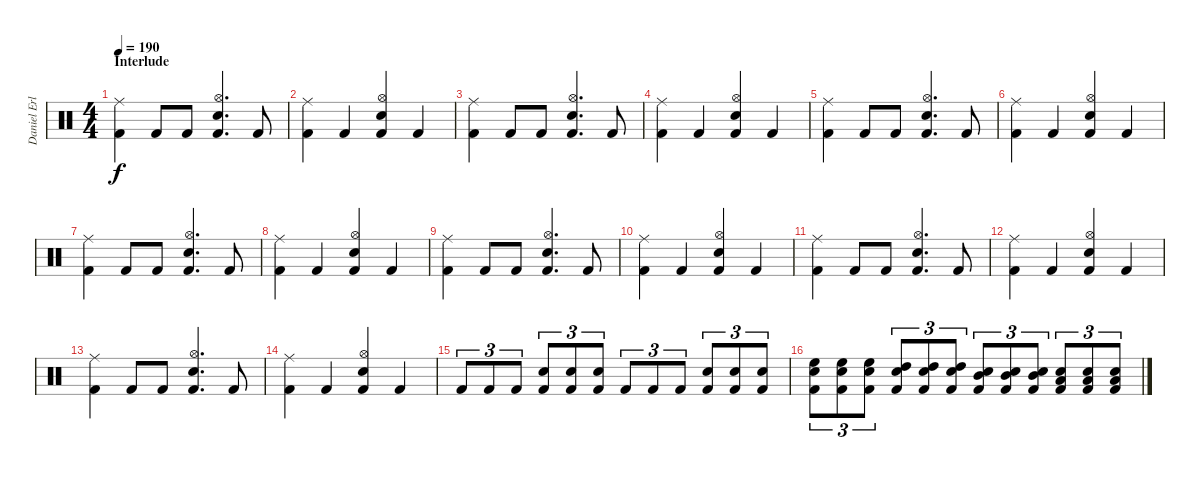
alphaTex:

\track ("Daniel Erlandsson" "Daniel Erl") {instrument percussion}
\staff {score}
\articulation defaults
\ts (4 4)
\section ("" "Interlude")
\tempo 190
\clef neutral
\ks c
("Ride (middle)" "Kick (hit) 2").4{dy f} "Kick (hit) 2".8 "Kick (hit) 2".8 ("Hi-Hat (open)" "Electric Snare (hit)" "Kick (hit) 2").4{d} "Kick (hit) 2".8 |
("Ride (middle)" "Kick (hit) 2").4 "Kick (hit) 2".4 ("Hi-Hat (open)" "Electric Snare (hit)" "Kick (hit) 2").4 "Kick (hit) 2".4 |
("Ride (middle)" "Kick (hit) 2").4 "Kick (hit) 2".8 "Kick (hit) 2".8 ("Hi-Hat (open)" "Electric Snare (hit)" "Kick (hit) 2").4{d} "Kick (hit) 2".8 |
("Ride (middle)" "Kick (hit) 2").4 "Kick (hit) 2".4 ("Hi-Hat (open)" "Electric Snare (hit)" "Kick (hit) 2").4 "Kick (hit) 2".4 |
("Ride (middle)" "Kick (hit) 2").4 "Kick (hit) 2".8 "Kick (hit) 2".8 ("Hi-Hat (open)" "Electric Snare (hit)" "Kick (hit) 2").4{d} "Kick (hit) 2".8 |
("Ride (middle)" "Kick (hit) 2").4 "Kick (hit) 2".4 ("Hi-Hat (open)" "Electric Snare (hit)" "Kick (hit) 2").4 "Kick (hit) 2".4 |
("Ride (middle)" "Kick (hit) 2").4 "Kick (hit) 2".8 "Kick (hit) 2".8 ("Hi-Hat (open)" "Electric Snare (hit)" "Kick (hit) 2").4{d} "Kick (hit) 2".8 |
("Ride (middle)" "Kick (hit) 2").4 "Kick (hit) 2".4 ("Hi-Hat (open)" "Electric Snare (hit)" "Kick (hit) 2").4 "Kick (hit) 2".4 |
("Ride (middle)" "Kick (hit) 2").4 "Kick (hit) 2".8 "Kick (hit) 2".8 ("Hi-Hat (open)" "Electric Snare (hit)" "Kick (hit) 2").4{d} "Kick (hit) 2".8 |
("Ride (middle)" "Kick (hit) 2").4 "Kick (hit) 2".4 ("Hi-Hat (open)" "Electric Snare (hit)" "Kick (hit) 2").4 "Kick (hit) 2".4 |
("Ride (middle)" "Kick (hit) 2").4 "Kick (hit) 2".8 "Kick (hit) 2".8 ("Hi-Hat (open)" "Electric Snare (hit)" "Kick (hit) 2").4{d} "Kick (hit) 2".8 |
("Ride (middle)" "Kick (hit) 2").4 "Kick (hit) 2".4 ("Hi-Hat (open)" "Electric Snare (hit)" "Kick (hit) 2").4 "Kick (hit) 2".4 |
("Ride (middle)" "Kick (hit) 2").4 "Kick (hit) 2".8 "Kick (hit) 2".8 ("Hi-Hat (open)" "Electric Snare (hit)" "Kick (hit) 2").4{d} "Kick (hit) 2".8 |
("Ride (middle)" "Kick (hit) 2").4 "Kick (hit) 2".4 ("Hi-Hat (open)" "Electric Snare (hit)" "Kick (hit) 2").4 "Kick (hit) 2".4 |
"Kick (hit) 2".8{tu (3 2)} "Kick (hit) 2".8{tu (3 2)} "Kick (hit) 2".8{tu (3 2)} ("Electric Snare (hit)" "Kick (hit) 2").8{tu (3 2)} ("Electric Snare (hit)" "Kick (hit) 2").8{tu (3 2)} ("Electric Snare (hit)" "Kick (hit) 2").8{tu (3 2)} "Kick (hit) 2".8{tu (3 2)} "Kick (hit) 2".8{tu (3 2)} "Kick (hit) 2".8{tu (3 2)} ("Electric Snare (hit)" "Kick (hit) 2").8{tu (3 2)} ("Electric Snare (hit)" "Kick (hit) 2").8{tu (3 2)} ("Electric Snare (hit)" "Kick (hit) 2").8{tu (3 2)} |
("High Floor Tom (hit)" "Electric Snare (hit)" "Kick (hit) 2").8{tu (3 2)} ("High Floor Tom (hit)" "Electric Snare (hit)" "Kick (hit) 2").8{tu (3 2)} ("High Floor Tom (hit)" "Electric Snare (hit)" "Kick (hit) 2").8{tu (3 2)} ("High Tom (hit)" "Electric Snare (hit)" "Kick (hit) 2").8{tu (3 2)} ("High Tom (hit)" "Electric Snare (hit)" "Kick (hit) 2").8{tu (3 2)} ("High Tom (hit)" "Electric Snare (hit)" "Kick (hit) 2").8{tu (3 2)} ("Mid Tom (hit)" "Electric Snare (hit)" "Kick (hit) 2").8{tu (3 2)} ("Mid Tom (hit)" "Electric Snare (hit)" "Kick (hit) 2").8{tu (3 2)} ("Mid Tom (hit)" "Electric Snare (hit)" "Kick (hit) 2").8{tu (3 2)} ("Low Tom (hit)" "Electric Snare (hit)" "Kick (hit) 2").8{tu (3 2)} ("Low Tom (hit)" "Electric Snare (hit)" "Kick (hit) 2").8{tu (3 2)} ("Low Tom (hit)" "Electric Snare (hit)" "Kick (hit) 2").8{tu (3 2)}
